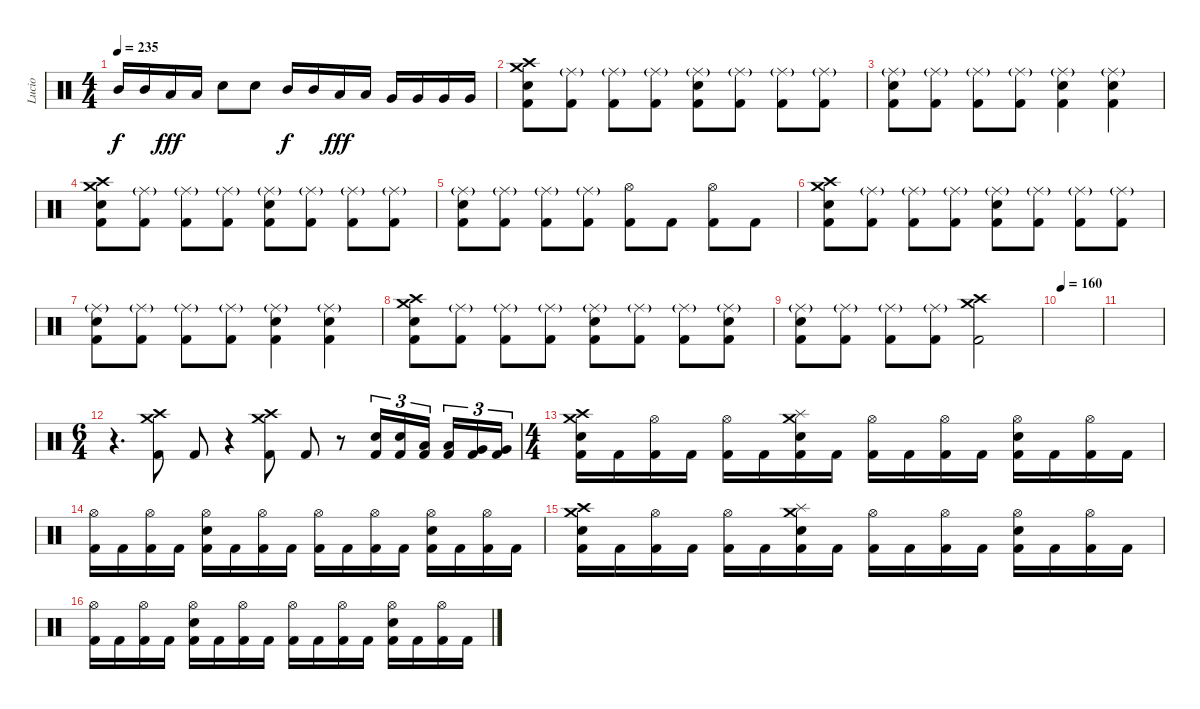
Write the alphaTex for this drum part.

\track ("Lucio" "Lucio") {instrument percussion}
\staff {score}
\articulation defaults
\ts (4 4)
\tempo 235
\clef neutral
\ks c "Mid Tom (hit)".16{dy f} "Mid Tom (hit)".16 "Low Tom (hit)".16{dy fff} "Low Tom (hit)".16 "Electric Snare (hit)".8 "Electric Snare (hit)".8 "Mid Tom (hit)".16{dy f} "Mid Tom (hit)".16 "Low Tom (hit)".16{dy fff} "Low Tom (hit)".16 "Very Low Tom (hit)".16 "Very Low Tom (hit)".16 "Very Low Tom (hit)".16 "Very Low Tom (hit)".16
|
("Crash medium (hit)" "Crash high (hit)" "Electric Snare (hit)" "Kick (hit) 2").8 ("Ride (middle)"{g} "Kick (hit) 2").8 ("Ride (middle)"{g} "Kick (hit) 2").8 ("Ride (middle)"{g} "Kick (hit) 2").8 ("Ride (middle)"{g} "Electric Snare (hit)" "Kick (hit) 2").8 ("Ride (middle)"{g} "Kick (hit) 2").8 ("Ride (middle)"{g} "Kick (hit) 2").8 ("Ride (middle)"{g} "Kick (hit) 2").8 |
("Ride (middle)"{g} "Electric Snare (hit)" "Kick (hit) 2").8 ("Ride (middle)"{g} "Kick (hit) 2").8 ("Ride (middle)"{g} "Kick (hit) 2").8 ("Ride (middle)"{g} "Kick (hit) 2").8 ("Ride (middle)"{g} "Electric Snare (hit)" "Kick (hit) 2").4 ("Ride (middle)"{g} "Electric Snare (hit)" "Kick (hit) 2").4 |
("Crash medium (hit)" "Crash high (hit)" "Electric Snare (hit)" "Kick (hit) 2").8 ("Ride (middle)"{g} "Kick (hit) 2").8 ("Ride (middle)"{g} "Kick (hit) 2").8 ("Ride (middle)"{g} "Kick (hit) 2").8 ("Ride (middle)"{g} "Electric Snare (hit)" "Kick (hit) 2").8 ("Ride (middle)"{g} "Kick (hit) 2").8 ("Ride (middle)"{g} "Kick (hit) 2").8 ("Ride (middle)"{g} "Kick (hit) 2").8 |
("Ride (middle)"{g} "Electric Snare (hit)" "Kick (hit) 2").8 ("Ride (middle)"{g} "Kick (hit) 2").8 ("Ride (middle)"{g} "Kick (hit) 2").8 ("Ride (middle)"{g} "Kick (hit) 2").8 ("Hi-Hat (open)" "Kick (hit) 2").8 "Kick (hit) 2".8 ("Hi-Hat (open)" "Kick (hit) 2").8 "Kick (hit) 2".8 |
("Crash medium (hit)" "Crash high (hit)" "Electric Snare (hit)" "Kick (hit) 2").8 ("Ride (middle)"{g} "Kick (hit) 2").8 ("Ride (middle)"{g} "Kick (hit) 2").8 ("Ride (middle)"{g} "Kick (hit) 2").8 ("Ride (middle)"{g} "Electric Snare (hit)" "Kick (hit) 2").8 ("Ride (middle)"{g} "Kick (hit) 2").8 ("Ride (middle)"{g} "Kick (hit) 2").8 ("Ride (middle)"{g} "Kick (hit) 2").8 |
("Ride (middle)"{g} "Electric Snare (hit)" "Kick (hit) 2").8 ("Ride (middle)"{g} "Kick (hit) 2").8 ("Ride (middle)"{g} "Kick (hit) 2").8 ("Ride (middle)"{g} "Kick (hit) 2").8 ("Ride (middle)"{g} "Electric Snare (hit)" "Kick (hit) 2").4 ("Ride (middle)"{g} "Electric Snare (hit)" "Kick (hit) 2").4 |
("Crash medium (hit)" "Crash high (hit)" "Electric Snare (hit)" "Kick (hit) 2").8 ("Ride (middle)"{g} "Kick (hit) 2").8 ("Ride (middle)"{g} "Kick (hit) 2").8 ("Ride (middle)"{g} "Kick (hit) 2").8 ("Ride (middle)"{g} "Electric Snare (hit)" "Kick (hit) 2").8 ("Ride (middle)"{g} "Kick (hit) 2").8 ("Ride (middle)"{g} "Kick (hit) 2").8 ("Ride (middle)"{g} "Electric Snare (hit)" "Kick (hit) 2").8 |
("Ride (middle)"{g} "Electric Snare (hit)" "Kick (hit) 2").8 ("Ride (middle)"{g} "Kick (hit) 2").8 ("Ride (middle)"{g} "Kick (hit) 2").8 ("Ride (middle)"{g} "Kick (hit) 2").8 ("Crash medium (hit)" "Crash high (hit)" "Kick (hit) 2").2 |
\tempo 160
|
|
\ts (6 4)
r.4{d} ("Crash medium (hit)" "Crash high (hit)" "Kick (hit) 2").8 "Kick (hit) 2".8 r.4{volume 0} ("Crash medium (hit)" "Crash high (hit)" "Kick (hit) 2").8{volume 16} "Kick (hit) 2".8 r.8{volume 0} ("Electric Snare (hit)" "Kick (hit) 2").16{tu (3 2) volume 16} ("Electric Snare (hit)" "Kick (hit) 2").16{tu (3 2)} ("Low Tom (hit)" "Kick (hit) 2").16{tu (3 2) beam splitsecondary} ("Low Tom (hit)" "Kick (hit) 2").16{tu (3 2)} ("Very Low Tom (hit)" "Kick (hit) 2").16{tu (3 2)} ("Very Low Tom (hit)" "Kick (hit) 2").16{tu (3 2)} |
\ts (4 4)
("Crash medium (hit)" "Crash high (hit)" "Electric Snare (hit)" "Kick (hit) 2").16 "Kick (hit) 2".16 ("Hi-Hat (open)" "Kick (hit) 2").16 "Kick (hit) 2".16 ("Hi-Hat (open)" "Kick (hit) 2").16 "Kick (hit) 2".16 ("Crash medium (hit)" "Splash (hit)" "Electric Snare (hit)" "Kick (hit) 2").16 "Kick (hit) 2".16 ("Hi-Hat (open)" "Kick (hit) 2").16 "Kick (hit) 2".16 ("Hi-Hat (open)" "Kick (hit) 2").16 "Kick (hit) 2".16 ("Hi-Hat (open)" "Electric Snare (hit)" "Kick (hit) 2").16 "Kick (hit) 2".16 ("Hi-Hat (open)" "Kick (hit) 2").16 "Kick (hit) 2".16 |
("Hi-Hat (open)" "Kick (hit) 2").16 "Kick (hit) 2".16 ("Hi-Hat (open)" "Kick (hit) 2").16 "Kick (hit) 2".16 ("Hi-Hat (open)" "Electric Snare (hit)" "Kick (hit) 2").16 "Kick (hit) 2".16 ("Hi-Hat (open)" "Kick (hit) 2").16 "Kick (hit) 2".16 ("Hi-Hat (open)" "Kick (hit) 2").16 "Kick (hit) 2".16 ("Hi-Hat (open)" "Kick (hit) 2").16 "Kick (hit) 2".16 ("Hi-Hat (open)" "Electric Snare (hit)" "Kick (hit) 2").16 "Kick (hit) 2".16 ("Hi-Hat (open)" "Kick (hit) 2").16 "Kick (hit) 2".16 |
("Crash medium (hit)" "Crash high (hit)" "Electric Snare (hit)" "Kick (hit) 2").16 "Kick (hit) 2".16 ("Hi-Hat (open)" "Kick (hit) 2").16 "Kick (hit) 2".16 ("Hi-Hat (open)" "Kick (hit) 2").16 "Kick (hit) 2".16 ("Crash medium (hit)" "Splash (hit)" "Electric Snare (hit)" "Kick (hit) 2").16 "Kick (hit) 2".16 ("Hi-Hat (open)" "Kick (hit) 2").16 "Kick (hit) 2".16 ("Hi-Hat (open)" "Kick (hit) 2").16 "Kick (hit) 2".16 ("Hi-Hat (open)" "Electric Snare (hit)" "Kick (hit) 2").16 "Kick (hit) 2".16 ("Hi-Hat (open)" "Kick (hit) 2").16 "Kick (hit) 2".16 |
("Hi-Hat (open)" "Kick (hit) 2").16 "Kick (hit) 2".16 ("Hi-Hat (open)" "Kick (hit) 2").16 "Kick (hit) 2".16 ("Hi-Hat (open)" "Electric Snare (hit)" "Kick (hit) 2").16 "Kick (hit) 2".16 ("Hi-Hat (open)" "Kick (hit) 2").16 "Kick (hit) 2".16 ("Hi-Hat (open)" "Kick (hit) 2").16 "Kick (hit) 2".16 ("Hi-Hat (open)" "Kick (hit) 2").16 "Kick (hit) 2".16 ("Hi-Hat (open)" "Electric Snare (hit)" "Kick (hit) 2").16 "Kick (hit) 2".16 ("Hi-Hat (open)" "Kick (hit) 2").16 "Kick (hit) 2".16
